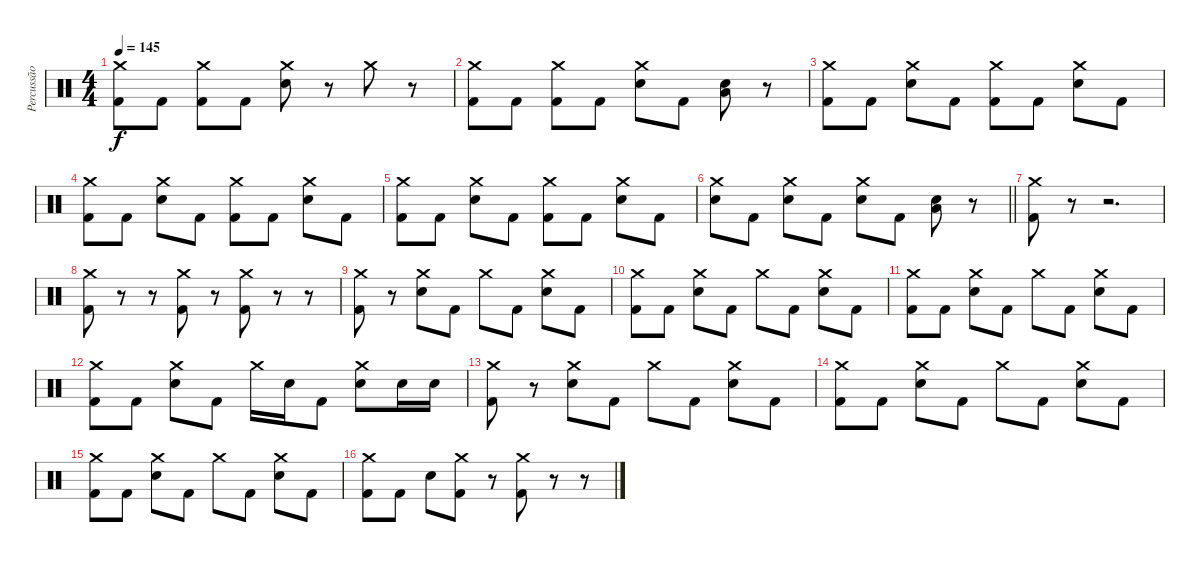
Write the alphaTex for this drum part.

\track ("Percussão" "Percussão") {instrument percussion}
\staff {score}
\articulation defaults
\ts (4 4)
\tempo 145
\clef neutral
\ks c
("Crash medium (hit)" "Kick (hit) 2").8{dy f} "Kick (hit) 2".8 ("Crash medium (hit)" "Kick (hit) 2").8 "Kick (hit) 2".8 ("Crash medium (hit)" "Electric Snare (hit)").8 r.8 "Crash medium (hit)".8 r.8 |
("Crash medium (hit)" "Kick (hit) 2").8 "Kick (hit) 2".8 ("Crash medium (hit)" "Kick (hit) 2").8 "Kick (hit) 2".8 ("Crash medium (hit)" "Electric Snare (hit)").8 "Kick (hit) 2".8 ("Electric Snare (hit)" "Low Tom (hit)").8 r.8 |
("Crash medium (hit)" "Kick (hit) 2").8 "Kick (hit) 2".8 ("Crash medium (hit)" "Electric Snare (hit)").8 "Kick (hit) 2".8 ("Crash medium (hit)" "Kick (hit) 2").8 "Kick (hit) 2".8 ("Crash medium (hit)" "Electric Snare (hit)").8 "Kick (hit) 2".8 |
("Crash medium (hit)" "Kick (hit) 2").8 "Kick (hit) 2".8 ("Crash medium (hit)" "Electric Snare (hit)").8 "Kick (hit) 2".8 ("Crash medium (hit)" "Kick (hit) 2").8 "Kick (hit) 2".8 ("Crash medium (hit)" "Electric Snare (hit)").8 "Kick (hit) 2".8 |
("Crash medium (hit)" "Kick (hit) 2").8 "Kick (hit) 2".8 ("Crash medium (hit)" "Electric Snare (hit)").8 "Kick (hit) 2".8 ("Crash medium (hit)" "Kick (hit) 2").8 "Kick (hit) 2".8 ("Crash medium (hit)" "Electric Snare (hit)").8 "Kick (hit) 2".8 |
\barLineRight lightlight
("Crash medium (hit)" "Electric Snare (hit)").8 "Kick (hit) 2".8 ("Crash medium (hit)" "Electric Snare (hit)").8 "Kick (hit) 2".8 ("Crash medium (hit)" "Electric Snare (hit)").8 "Kick (hit) 2".8 ("Electric Snare (hit)" "Low Tom (hit)").8 r.8 |
("Crash medium (hit)" "Kick (hit) 2").8 r.8{volume 0} r.2{d} |
("Crash medium (hit)" "Kick (hit) 2").8{volume 13} r.8{volume 0} r.8 ("Crash medium (hit)" "Kick (hit) 2").8{volume 13} r.8 ("Crash medium (hit)" "Kick (hit) 2").8 r.8{volume 0} r.8 |
("Crash medium (hit)" "Kick (hit) 2").8{volume 13} r.8 ("Crash medium (hit)" "Electric Snare (hit)").8 "Kick (hit) 2".8 "Crash medium (hit)".8 "Kick (hit) 2".8 ("Crash medium (hit)" "Electric Snare (hit)").8 "Kick (hit) 2".8 |
("Crash medium (hit)" "Kick (hit) 2").8 "Kick (hit) 2".8 ("Crash medium (hit)" "Electric Snare (hit)").8 "Kick (hit) 2".8 "Crash medium (hit)".8 "Kick (hit) 2".8 ("Crash medium (hit)" "Electric Snare (hit)").8 "Kick (hit) 2".8 |
("Crash medium (hit)" "Kick (hit) 2").8 "Kick (hit) 2".8 ("Crash medium (hit)" "Electric Snare (hit)").8 "Kick (hit) 2".8 "Crash medium (hit)".8 "Kick (hit) 2".8 ("Crash medium (hit)" "Electric Snare (hit)").8 "Kick (hit) 2".8 |
("Crash medium (hit)" "Kick (hit) 2").8 "Kick (hit) 2".8 ("Crash medium (hit)" "Electric Snare (hit)").8 "Kick (hit) 2".8 "Crash medium (hit)".16 "Electric Snare (hit)".16 "Kick (hit) 2".8 ("Crash medium (hit)" "Electric Snare (hit)").8 "Electric Snare (hit)".16 "Electric Snare (hit)".16 |
("Crash medium (hit)" "Kick (hit) 2").8 r.8 ("Crash medium (hit)" "Electric Snare (hit)").8 "Kick (hit) 2".8 "Crash medium (hit)".8 "Kick (hit) 2".8 ("Crash medium (hit)" "Electric Snare (hit)").8 "Kick (hit) 2".8 |
("Crash medium (hit)" "Kick (hit) 2").8 "Kick (hit) 2".8 ("Crash medium (hit)" "Electric Snare (hit)").8 "Kick (hit) 2".8 "Crash medium (hit)".8 "Kick (hit) 2".8 ("Crash medium (hit)" "Electric Snare (hit)").8 "Kick (hit) 2".8 |
("Crash medium (hit)" "Kick (hit) 2").8 "Kick (hit) 2".8 ("Crash medium (hit)" "Electric Snare (hit)").8 "Kick (hit) 2".8 "Crash medium (hit)".8 "Kick (hit) 2".8 ("Crash medium (hit)" "Electric Snare (hit)").8 "Kick (hit) 2".8 |
("Crash medium (hit)" "Kick (hit) 2").8 "Kick (hit) 2".8 "Electric Snare (hit)".8 ("Crash medium (hit)" "Kick (hit) 2").8 r.8 ("Crash medium (hit)" "Kick (hit) 2").8 r.8 r.8
